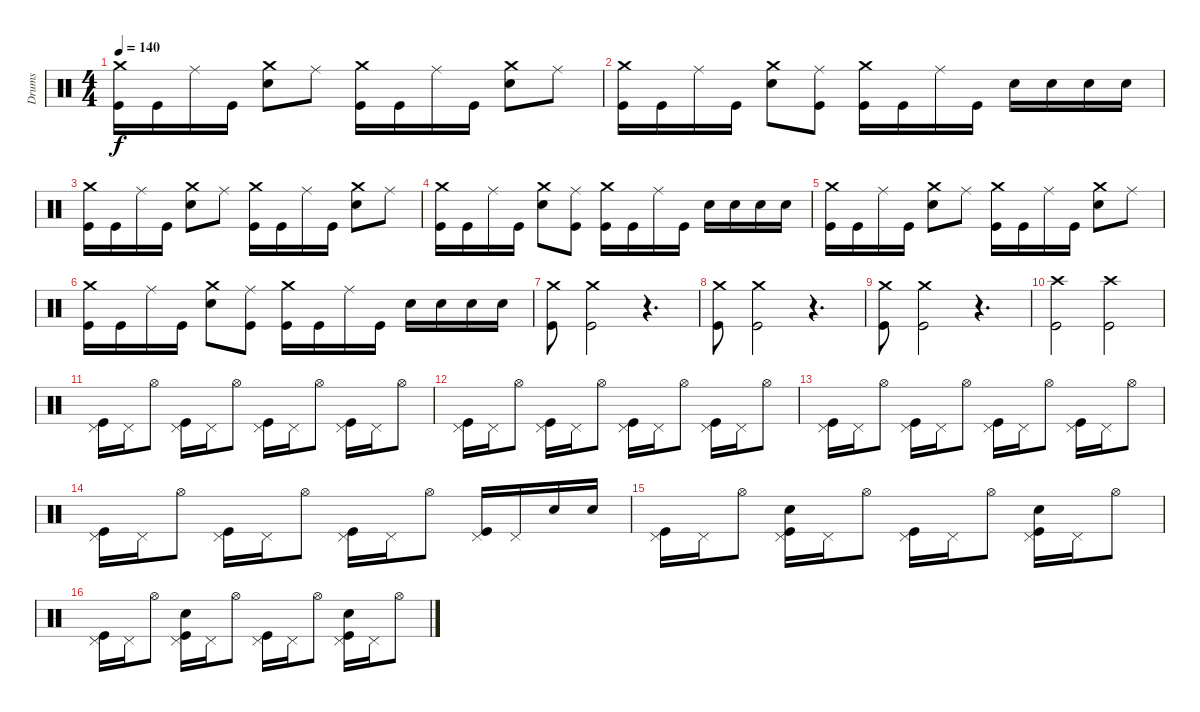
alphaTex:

\track ("Drums" "Drums") {instrument percussion}
\staff {score}
\articulation defaults
\ts (4 4)
\tempo 140
\clef neutral
\ks c
("Kick (hit)" "Crash medium (hit)").16{dy f} "Kick (hit)".16 "Ride (middle)".16 "Kick (hit)".16 ("Snare (hit) 2" "Crash medium (hit)").8 "Ride (middle)".8 ("Kick (hit)" "Crash medium (hit)").16 "Kick (hit)".16 "Ride (middle)".16 "Kick (hit)".16 ("Snare (hit) 2" "Crash medium (hit)").8 "Ride (middle)".8 |
("Kick (hit)" "Crash medium (hit)").16 "Kick (hit)".16 "Ride (middle)".16 "Kick (hit)".16 ("Snare (hit) 2" "Crash medium (hit)").8 ("Kick (hit)" "Ride (middle)").8 ("Kick (hit)" "Crash medium (hit)").16 "Kick (hit)".16 "Ride (middle)".16 "Kick (hit)".16 "Snare (hit) 2".16 "Snare (hit) 2".16 "Snare (hit) 2".16 "Snare (hit) 2".16 |
("Kick (hit)" "Crash medium (hit)").16 "Kick (hit)".16 "Ride (middle)".16 "Kick (hit)".16 ("Snare (hit) 2" "Crash medium (hit)").8 "Ride (middle)".8 ("Kick (hit)" "Crash medium (hit)").16 "Kick (hit)".16 "Ride (middle)".16 "Kick (hit)".16 ("Snare (hit) 2" "Crash medium (hit)").8 "Ride (middle)".8 |
("Kick (hit)" "Crash medium (hit)").16 "Kick (hit)".16 "Ride (middle)".16 "Kick (hit)".16 ("Snare (hit) 2" "Crash medium (hit)").8 ("Kick (hit)" "Ride (middle)").8 ("Kick (hit)" "Crash medium (hit)").16 "Kick (hit)".16 "Ride (middle)".16 "Kick (hit)".16 "Snare (hit) 2".16 "Snare (hit) 2".16 "Snare (hit) 2".16 "Snare (hit) 2".16 |
("Kick (hit)" "Crash medium (hit)").16 "Kick (hit)".16 "Ride (middle)".16 "Kick (hit)".16 ("Snare (hit) 2" "Crash medium (hit)").8 "Ride (middle)".8 ("Kick (hit)" "Crash medium (hit)").16 "Kick (hit)".16 "Ride (middle)".16 "Kick (hit)".16 ("Snare (hit) 2" "Crash medium (hit)").8 "Ride (middle)".8 |
("Kick (hit)" "Crash medium (hit)").16 "Kick (hit)".16 "Ride (middle)".16 "Kick (hit)".16 ("Snare (hit) 2" "Crash medium (hit)").8 ("Kick (hit)" "Ride (middle)").8 ("Kick (hit)" "Crash medium (hit)").16 "Kick (hit)".16 "Ride (middle)".16 "Kick (hit)".16 "Snare (hit) 2".16 "Snare (hit) 2".16 "Snare (hit) 2".16 "Snare (hit) 2".16 |
("Kick (hit)" "Crash medium (hit)").8 ("Kick (hit)" "Crash medium (hit)").2 r.4{d} |
("Kick (hit)" "Crash medium (hit)").8 ("Kick (hit)" "Crash medium (hit)").2 r.4{d} |
("Kick (hit)" "Crash medium (hit)").8 ("Kick (hit)" "Crash medium (hit)").2 r.4{d} |
("Kick (hit)" "Crash high (hit)").2 ("Kick (hit)" "Crash high (hit)").2 |
("Kick (hit)" "Pedal Hi-Hat (hit)").16 "Pedal Hi-Hat (hit)".16 "Hi-Hat (open)".8 ("Kick (hit)" "Pedal Hi-Hat (hit)").16 "Pedal Hi-Hat (hit)".16 "Hi-Hat (open)".8 ("Kick (hit)" "Pedal Hi-Hat (hit)").16 "Pedal Hi-Hat (hit)".16 "Hi-Hat (open)".8 ("Kick (hit)" "Pedal Hi-Hat (hit)").16 "Pedal Hi-Hat (hit)".16 "Hi-Hat (open)".8 |
("Kick (hit)" "Pedal Hi-Hat (hit)").16 "Pedal Hi-Hat (hit)".16 "Hi-Hat (open)".8 ("Kick (hit)" "Pedal Hi-Hat (hit)").16 "Pedal Hi-Hat (hit)".16 "Hi-Hat (open)".8 ("Kick (hit)" "Pedal Hi-Hat (hit)").16 "Pedal Hi-Hat (hit)".16 "Hi-Hat (open)".8 ("Kick (hit)" "Pedal Hi-Hat (hit)").16 "Pedal Hi-Hat (hit)".16 "Hi-Hat (open)".8 |
("Kick (hit)" "Pedal Hi-Hat (hit)").16 "Pedal Hi-Hat (hit)".16 "Hi-Hat (open)".8 ("Kick (hit)" "Pedal Hi-Hat (hit)").16 "Pedal Hi-Hat (hit)".16 "Hi-Hat (open)".8 ("Kick (hit)" "Pedal Hi-Hat (hit)").16 "Pedal Hi-Hat (hit)".16 "Hi-Hat (open)".8 ("Kick (hit)" "Pedal Hi-Hat (hit)").16 "Pedal Hi-Hat (hit)".16 "Hi-Hat (open)".8 |
("Kick (hit)" "Pedal Hi-Hat (hit)").16 "Pedal Hi-Hat (hit)".16 "Hi-Hat (open)".8 ("Kick (hit)" "Pedal Hi-Hat (hit)").16 "Pedal Hi-Hat (hit)".16 "Hi-Hat (open)".8 ("Kick (hit)" "Pedal Hi-Hat (hit)").16 "Pedal Hi-Hat (hit)".16 "Hi-Hat (open)".8 ("Kick (hit)" "Pedal Hi-Hat (hit)").16 "Pedal Hi-Hat (hit)".16 "Snare (hit) 2".16 "Snare (hit) 2".16 |
("Kick (hit)" "Pedal Hi-Hat (hit)").16 "Pedal Hi-Hat (hit)".16 "Hi-Hat (open)".8 ("Kick (hit)" "Snare (hit) 2" "Pedal Hi-Hat (hit)").16 "Pedal Hi-Hat (hit)".16 "Hi-Hat (open)".8 ("Kick (hit)" "Pedal Hi-Hat (hit)").16 "Pedal Hi-Hat (hit)".16 "Hi-Hat (open)".8 ("Kick (hit)" "Snare (hit) 2" "Pedal Hi-Hat (hit)").16 "Pedal Hi-Hat (hit)".16 "Hi-Hat (open)".8 |
("Kick (hit)" "Pedal Hi-Hat (hit)").16 "Pedal Hi-Hat (hit)".16 "Hi-Hat (open)".8 ("Kick (hit)" "Snare (hit) 2" "Pedal Hi-Hat (hit)").16 "Pedal Hi-Hat (hit)".16 "Hi-Hat (open)".8 ("Kick (hit)" "Pedal Hi-Hat (hit)").16 "Pedal Hi-Hat (hit)".16 "Hi-Hat (open)".8 ("Kick (hit)" "Snare (hit) 2" "Pedal Hi-Hat (hit)").16 "Pedal Hi-Hat (hit)".16 "Hi-Hat (open)".8
